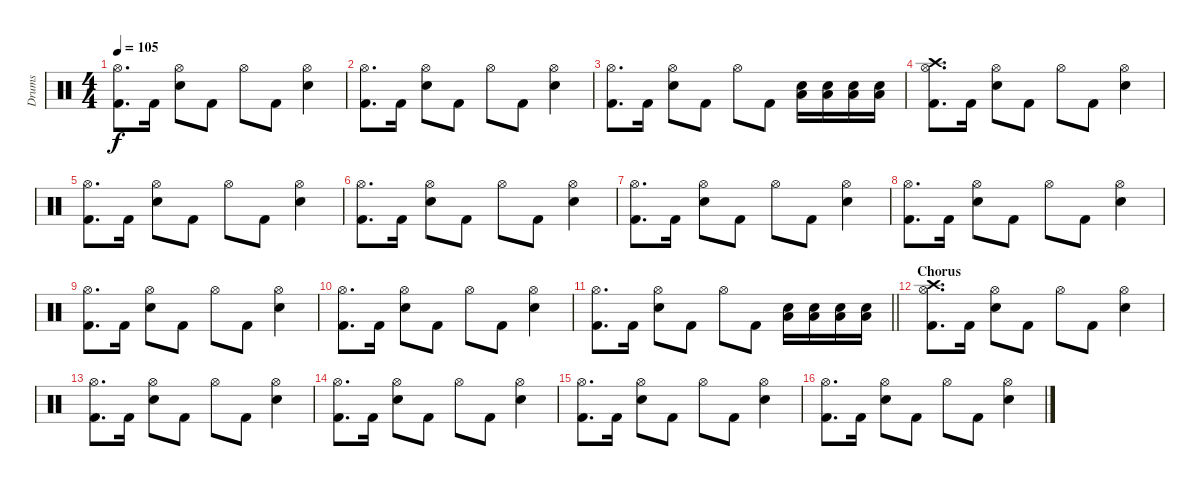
\track ("Drums" "Drums") {instrument percussion}
\staff {score}
\articulation defaults
\ts (4 4)
\tempo 105
\clef neutral
\ks aminor
("Hi-Hat (open)" "Kick (hit) 2").8{d dy f} "Kick (hit) 2".16 ("Snare (hit) 2" "Hi-Hat (open)").8 "Kick (hit) 2".8 "Hi-Hat (open)".8 "Kick (hit) 2".8 ("Snare (hit) 2" "Hi-Hat (open)").4 |
("Hi-Hat (open)" "Kick (hit) 2").8{d} "Kick (hit) 2".16 ("Snare (hit) 2" "Hi-Hat (open)").8 "Kick (hit) 2".8 "Hi-Hat (open)".8 "Kick (hit) 2".8 ("Snare (hit) 2" "Hi-Hat (open)").4 |
("Hi-Hat (open)" "Kick (hit) 2").8{d} "Kick (hit) 2".16 ("Snare (hit) 2" "Hi-Hat (open)").8 "Kick (hit) 2".8 "Hi-Hat (open)".8 "Kick (hit) 2".8 ("Snare (hit) 2" "Low Floor Tom (hit)").16 ("Snare (hit) 2" "Low Floor Tom (hit)").16 ("Snare (hit) 2" "Low Floor Tom (hit)").16 ("Snare (hit) 2" "Low Floor Tom (hit)").16 |
("Crash high (hit)" "Hi-Hat (open)" "Kick (hit) 2").8{d} "Kick (hit) 2".16 ("Snare (hit) 2" "Hi-Hat (open)").8 "Kick (hit) 2".8 "Hi-Hat (open)".8 "Kick (hit) 2".8 ("Snare (hit) 2" "Hi-Hat (open)").4 |
("Hi-Hat (open)" "Kick (hit) 2").8{d} "Kick (hit) 2".16 ("Snare (hit) 2" "Hi-Hat (open)").8 "Kick (hit) 2".8 "Hi-Hat (open)".8 "Kick (hit) 2".8 ("Snare (hit) 2" "Hi-Hat (open)").4 |
("Hi-Hat (open)" "Kick (hit) 2").8{d} "Kick (hit) 2".16 ("Snare (hit) 2" "Hi-Hat (open)").8 "Kick (hit) 2".8 "Hi-Hat (open)".8 "Kick (hit) 2".8 ("Snare (hit) 2" "Hi-Hat (open)").4 |
("Hi-Hat (open)" "Kick (hit) 2").8{d} "Kick (hit) 2".16 ("Snare (hit) 2" "Hi-Hat (open)").8 "Kick (hit) 2".8 "Hi-Hat (open)".8 "Kick (hit) 2".8 ("Snare (hit) 2" "Hi-Hat (open)").4 |
("Hi-Hat (open)" "Kick (hit) 2").8{d} "Kick (hit) 2".16 ("Snare (hit) 2" "Hi-Hat (open)").8 "Kick (hit) 2".8 "Hi-Hat (open)".8 "Kick (hit) 2".8 ("Snare (hit) 2" "Hi-Hat (open)").4 |
("Hi-Hat (open)" "Kick (hit) 2").8{d} "Kick (hit) 2".16 ("Snare (hit) 2" "Hi-Hat (open)").8 "Kick (hit) 2".8 "Hi-Hat (open)".8 "Kick (hit) 2".8 ("Snare (hit) 2" "Hi-Hat (open)").4 |
("Hi-Hat (open)" "Kick (hit) 2").8{d} "Kick (hit) 2".16 ("Snare (hit) 2" "Hi-Hat (open)").8 "Kick (hit) 2".8 "Hi-Hat (open)".8 "Kick (hit) 2".8 ("Snare (hit) 2" "Hi-Hat (open)").4 |
\barLineRight lightlight
("Hi-Hat (open)" "Kick (hit) 2").8{d} "Kick (hit) 2".16 ("Snare (hit) 2" "Hi-Hat (open)").8 "Kick (hit) 2".8 "Hi-Hat (open)".8 "Kick (hit) 2".8 ("Snare (hit) 2" "Low Floor Tom (hit)").16 ("Snare (hit) 2" "Low Floor Tom (hit)").16 ("Snare (hit) 2" "Low Floor Tom (hit)").16 ("Snare (hit) 2" "Low Floor Tom (hit)").16 |
\section ("" "Chorus")
("Crash high (hit)" "Hi-Hat (open)" "Kick (hit) 2").8{d} "Kick (hit) 2".16 ("Snare (hit) 2" "Hi-Hat (open)").8 "Kick (hit) 2".8 "Hi-Hat (open)".8 "Kick (hit) 2".8 ("Snare (hit) 2" "Hi-Hat (open)").4 |
("Hi-Hat (open)" "Kick (hit) 2").8{d} "Kick (hit) 2".16 ("Snare (hit) 2" "Hi-Hat (open)").8 "Kick (hit) 2".8 "Hi-Hat (open)".8 "Kick (hit) 2".8 ("Snare (hit) 2" "Hi-Hat (open)").4 |
("Hi-Hat (open)" "Kick (hit) 2").8{d} "Kick (hit) 2".16 ("Snare (hit) 2" "Hi-Hat (open)").8 "Kick (hit) 2".8 "Hi-Hat (open)".8 "Kick (hit) 2".8 ("Snare (hit) 2" "Hi-Hat (open)").4 |
("Hi-Hat (open)" "Kick (hit) 2").8{d} "Kick (hit) 2".16 ("Snare (hit) 2" "Hi-Hat (open)").8 "Kick (hit) 2".8 "Hi-Hat (open)".8 "Kick (hit) 2".8 ("Snare (hit) 2" "Hi-Hat (open)").4 |
("Hi-Hat (open)" "Kick (hit) 2").8{d} "Kick (hit) 2".16 ("Snare (hit) 2" "Hi-Hat (open)").8 "Kick (hit) 2".8 "Hi-Hat (open)".8 "Kick (hit) 2".8 ("Snare (hit) 2" "Hi-Hat (open)").4
